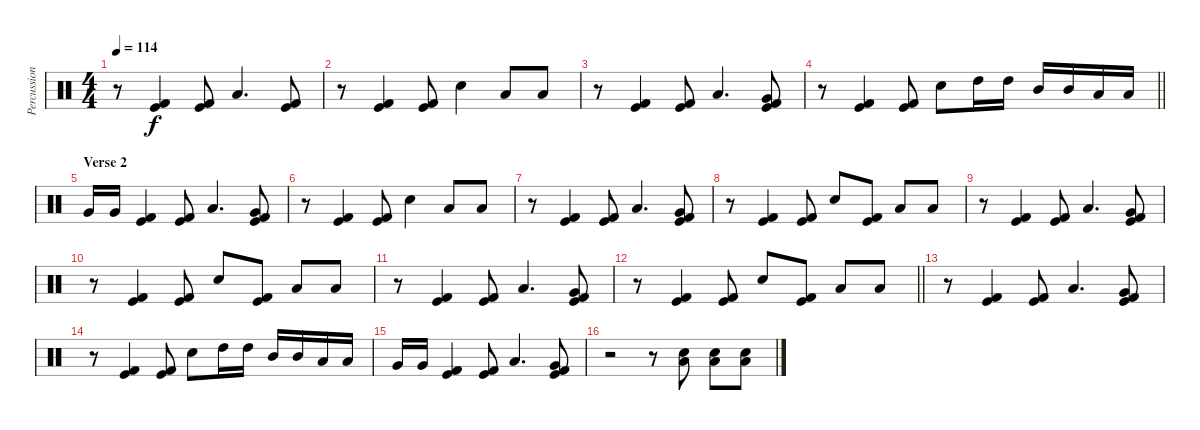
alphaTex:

\track ("Percussion" "Percussion") {instrument percussion}
\staff {score}
\articulation defaults
\ts (4 4)
\section ("" "")
\tempo 114
\clef neutral
\ks c
r.8{dy f} ("Kick (hit)" "Kick (hit) 2").4 ("Kick (hit)" "Kick (hit) 2").8 "Low Tom (hit)".4{d} ("Kick (hit)" "Kick (hit) 2").8 |
r.8 ("Kick (hit)" "Kick (hit) 2").4 ("Kick (hit)" "Kick (hit) 2").8 "Electric Snare (hit)".4 "Low Tom (hit)".8 "Low Tom (hit)".8 |
r.8 ("Kick (hit)" "Kick (hit) 2").4 ("Kick (hit)" "Kick (hit) 2").8 "Low Tom (hit)".4{d} ("Very Low Tom (hit)" "Kick (hit)" "Kick (hit) 2").8 |
\barLineRight lightlight
r.8 ("Kick (hit)" "Kick (hit) 2").4 ("Kick (hit)" "Kick (hit) 2").8 "Electric Snare (hit)".8 "High Tom (hit)".16 "High Tom (hit)".16 "Mid Tom (hit)".16 "Mid Tom (hit)".16 "Low Tom (hit)".16 "Low Tom (hit)".16 |
\section ("" "Verse 2")
"Very Low Tom (hit)".16 "Very Low Tom (hit)".16 ("Kick (hit)" "Kick (hit) 2").4 ("Kick (hit)" "Kick (hit) 2").8 "Low Tom (hit)".4{d} ("Very Low Tom (hit)" "Kick (hit)" "Kick (hit) 2").8 |
r.8 ("Kick (hit)" "Kick (hit) 2").4 ("Kick (hit)" "Kick (hit) 2").8 "Electric Snare (hit)".4 "Low Tom (hit)".8 "Low Tom (hit)".8 |
r.8 ("Kick (hit)" "Kick (hit) 2").4 ("Kick (hit)" "Kick (hit) 2").8 "Low Tom (hit)".4{d} ("Very Low Tom (hit)" "Kick (hit)" "Kick (hit) 2").8 |
r.8 ("Kick (hit)" "Kick (hit) 2").4 ("Kick (hit)" "Kick (hit) 2").8 "Electric Snare (hit)".8 ("Kick (hit)" "Kick (hit) 2").8 "Low Tom (hit)".8 "Low Tom (hit)".8 |
r.8 ("Kick (hit)" "Kick (hit) 2").4 ("Kick (hit)" "Kick (hit) 2").8 "Low Tom (hit)".4{d} ("Very Low Tom (hit)" "Kick (hit)" "Kick (hit) 2").8 |
r.8 ("Kick (hit)" "Kick (hit) 2").4 ("Kick (hit)" "Kick (hit) 2").8 "Electric Snare (hit)".8 ("Kick (hit)" "Kick (hit) 2").8 "Low Tom (hit)".8 "Low Tom (hit)".8 |
r.8 ("Kick (hit)" "Kick (hit) 2").4 ("Kick (hit)" "Kick (hit) 2").8 "Low Tom (hit)".4{d} ("Very Low Tom (hit)" "Kick (hit)" "Kick (hit) 2").8 |
\barLineRight lightlight
r.8 ("Kick (hit)" "Kick (hit) 2").4 ("Kick (hit)" "Kick (hit) 2").8 "Electric Snare (hit)".8 ("Kick (hit)" "Kick (hit) 2").8 "Low Tom (hit)".8 "Low Tom (hit)".8 |
\section ("" "")
r.8 ("Kick (hit)" "Kick (hit) 2").4 ("Kick (hit)" "Kick (hit) 2").8 "Low Tom (hit)".4{d} ("Very Low Tom (hit)" "Kick (hit)" "Kick (hit) 2").8 |
r.8 ("Kick (hit)" "Kick (hit) 2").4 ("Kick (hit)" "Kick (hit) 2").8 "Electric Snare (hit)".8 "High Tom (hit)".16 "High Tom (hit)".16 "Mid Tom (hit)".16 "Mid Tom (hit)".16 "Low Tom (hit)".16 "Low Tom (hit)".16 |
"Very Low Tom (hit)".16 "Very Low Tom (hit)".16 ("Kick (hit)" "Kick (hit) 2").4 ("Kick (hit)" "Kick (hit) 2").8 "Low Tom (hit)".4{d} ("Very Low Tom (hit)" "Kick (hit)" "Kick (hit) 2").8 |
r.2 r.8 ("Electric Snare (hit)" "Low Floor Tom (hit)").8 ("Electric Snare (hit)" "Low Floor Tom (hit)").8 ("Electric Snare (hit)" "Low Floor Tom (hit)").8
